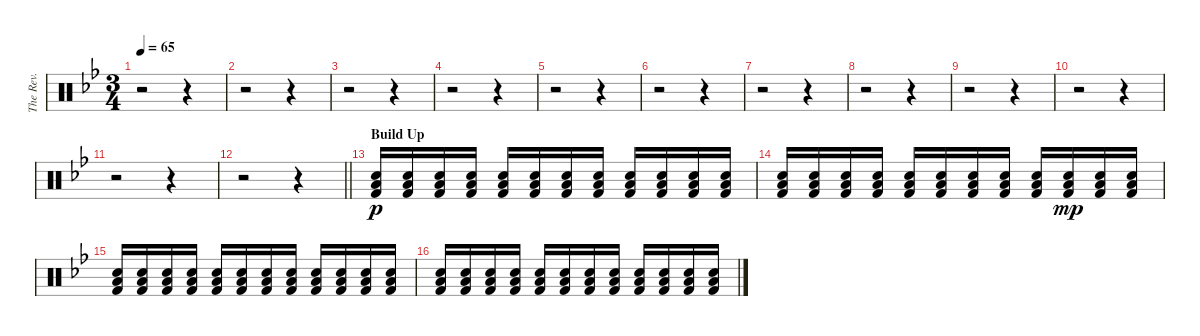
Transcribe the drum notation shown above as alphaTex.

\track ("The Rev." "The Rev.") {instrument percussion}
\staff {score}
\articulation defaults
\ts (3 4)
\tempo 65
\clef neutral
\ks bb
r.2{dy f} r.4 |
r.2 r.4 |
r.2 r.4 |
r.2 r.4 |
r.2 r.4 |
r.2 r.4 |
r.2 r.4 |
r.2 r.4 |
r.2 r.4 |
r.2 r.4 |
r.2 r.4 |
\barLineRight lightlight
r.2 r.4 |
\section ("" "Build Up")
("Kick (hit) 2" "Electric Snare (hit)" "Low Tom (hit)").16{dy p} ("Kick (hit) 2" "Electric Snare (hit)" "Low Tom (hit)").16 ("Kick (hit) 2" "Electric Snare (hit)" "Low Tom (hit)").16 ("Kick (hit) 2" "Electric Snare (hit)" "Low Tom (hit)").16 ("Kick (hit) 2" "Electric Snare (hit)" "Low Tom (hit)").16 ("Kick (hit) 2" "Electric Snare (hit)" "Low Tom (hit)").16 ("Kick (hit) 2" "Electric Snare (hit)" "Low Tom (hit)").16 ("Kick (hit) 2" "Electric Snare (hit)" "Low Tom (hit)").16 ("Kick (hit) 2" "Electric Snare (hit)" "Low Tom (hit)").16 ("Kick (hit) 2" "Electric Snare (hit)" "Low Tom (hit)").16 ("Kick (hit) 2" "Electric Snare (hit)" "Low Tom (hit)").16 ("Kick (hit) 2" "Electric Snare (hit)" "Low Tom (hit)").16 |
("Kick (hit) 2" "Electric Snare (hit)" "Low Tom (hit)").16 ("Kick (hit) 2" "Electric Snare (hit)" "Low Tom (hit)").16 ("Kick (hit) 2" "Electric Snare (hit)" "Low Tom (hit)").16 ("Kick (hit) 2" "Electric Snare (hit)" "Low Tom (hit)").16 ("Kick (hit) 2" "Electric Snare (hit)" "Low Tom (hit)").16 ("Kick (hit) 2" "Electric Snare (hit)" "Low Tom (hit)").16 ("Kick (hit) 2" "Electric Snare (hit)" "Low Tom (hit)").16 ("Kick (hit) 2" "Electric Snare (hit)" "Low Tom (hit)").16 ("Kick (hit) 2" "Electric Snare (hit)" "Low Tom (hit)").16 ("Kick (hit) 2" "Electric Snare (hit)" "Low Tom (hit)").16{dy mp} ("Kick (hit) 2" "Electric Snare (hit)" "Low Tom (hit)").16 ("Kick (hit) 2" "Electric Snare (hit)" "Low Tom (hit)").16 |
("Kick (hit) 2" "Electric Snare (hit)" "Low Tom (hit)").16 ("Kick (hit) 2" "Electric Snare (hit)" "Low Tom (hit)").16 ("Kick (hit) 2" "Electric Snare (hit)" "Low Tom (hit)").16 ("Kick (hit) 2" "Electric Snare (hit)" "Low Tom (hit)").16 ("Kick (hit) 2" "Electric Snare (hit)" "Low Tom (hit)").16 ("Kick (hit) 2" "Electric Snare (hit)" "Low Tom (hit)").16 ("Kick (hit) 2" "Electric Snare (hit)" "Low Tom (hit)").16 ("Kick (hit) 2" "Electric Snare (hit)" "Low Tom (hit)").16 ("Kick (hit) 2" "Electric Snare (hit)" "Low Tom (hit)").16 ("Kick (hit) 2" "Electric Snare (hit)" "Low Tom (hit)").16 ("Kick (hit) 2" "Electric Snare (hit)" "Low Tom (hit)").16 ("Kick (hit) 2" "Electric Snare (hit)" "Low Tom (hit)").16 |
("Kick (hit) 2" "Electric Snare (hit)" "Low Tom (hit)").16 ("Kick (hit) 2" "Electric Snare (hit)" "Low Tom (hit)").16 ("Kick (hit) 2" "Electric Snare (hit)" "Low Tom (hit)").16 ("Kick (hit) 2" "Electric Snare (hit)" "Low Tom (hit)").16 ("Kick (hit) 2" "Electric Snare (hit)" "Low Tom (hit)").16 ("Kick (hit) 2" "Electric Snare (hit)" "Low Tom (hit)").16 ("Kick (hit) 2" "Electric Snare (hit)" "Low Tom (hit)").16 ("Kick (hit) 2" "Electric Snare (hit)" "Low Tom (hit)").16 ("Kick (hit) 2" "Electric Snare (hit)" "Low Tom (hit)").16 ("Kick (hit) 2" "Electric Snare (hit)" "Low Tom (hit)").16 ("Kick (hit) 2" "Electric Snare (hit)" "Low Tom (hit)").16 ("Kick (hit) 2" "Electric Snare (hit)" "Low Tom (hit)").16
